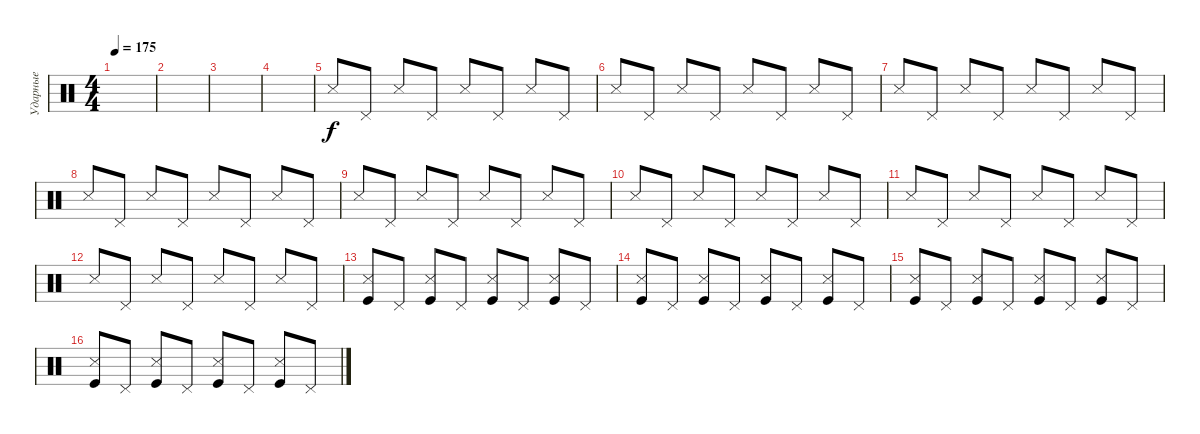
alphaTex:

\track ("Ударные" "Ударные") {instrument percussion}
\staff {score}
\articulation defaults
\ts (4 4)
\tempo 175
\clef neutral
\ks c
|
|
|
|
"Snare (side stick) 3".8 "Pedal Hi-Hat (hit)".8 "Snare (side stick) 3".8 "Pedal Hi-Hat (hit)".8 "Snare (side stick) 3".8 "Pedal Hi-Hat (hit)".8 "Snare (side stick) 3".8 "Pedal Hi-Hat (hit)".8 |
"Snare (side stick) 3".8 "Pedal Hi-Hat (hit)".8 "Snare (side stick) 3".8 "Pedal Hi-Hat (hit)".8 "Snare (side stick) 3".8 "Pedal Hi-Hat (hit)".8 "Snare (side stick) 3".8 "Pedal Hi-Hat (hit)".8 |
"Snare (side stick) 3".8 "Pedal Hi-Hat (hit)".8 "Snare (side stick) 3".8 "Pedal Hi-Hat (hit)".8 "Snare (side stick) 3".8 "Pedal Hi-Hat (hit)".8 "Snare (side stick) 3".8 "Pedal Hi-Hat (hit)".8 |
"Snare (side stick) 3".8 "Pedal Hi-Hat (hit)".8 "Snare (side stick) 3".8 "Pedal Hi-Hat (hit)".8 "Snare (side stick) 3".8 "Pedal Hi-Hat (hit)".8 "Snare (side stick) 3".8 "Pedal Hi-Hat (hit)".8 |
"Snare (side stick) 3".8 "Pedal Hi-Hat (hit)".8 "Snare (side stick) 3".8 "Pedal Hi-Hat (hit)".8 "Snare (side stick) 3".8 "Pedal Hi-Hat (hit)".8 "Snare (side stick) 3".8 "Pedal Hi-Hat (hit)".8 |
"Snare (side stick) 3".8 "Pedal Hi-Hat (hit)".8 "Snare (side stick) 3".8 "Pedal Hi-Hat (hit)".8 "Snare (side stick) 3".8 "Pedal Hi-Hat (hit)".8 "Snare (side stick) 3".8 "Pedal Hi-Hat (hit)".8 |
"Snare (side stick) 3".8 "Pedal Hi-Hat (hit)".8 "Snare (side stick) 3".8 "Pedal Hi-Hat (hit)".8 "Snare (side stick) 3".8 "Pedal Hi-Hat (hit)".8 "Snare (side stick) 3".8 "Pedal Hi-Hat (hit)".8 |
"Snare (side stick) 3".8 "Pedal Hi-Hat (hit)".8 "Snare (side stick) 3".8 "Pedal Hi-Hat (hit)".8 "Snare (side stick) 3".8 "Pedal Hi-Hat (hit)".8 "Snare (side stick) 3".8 "Pedal Hi-Hat (hit)".8 |
("Snare (side stick) 3" "Kick (hit)").8 "Pedal Hi-Hat (hit)".8 ("Snare (side stick) 3" "Kick (hit)").8 "Pedal Hi-Hat (hit)".8 ("Snare (side stick) 3" "Kick (hit)").8 "Pedal Hi-Hat (hit)".8 ("Snare (side stick) 3" "Kick (hit)").8 "Pedal Hi-Hat (hit)".8 |
("Snare (side stick) 3" "Kick (hit)").8 "Pedal Hi-Hat (hit)".8 ("Snare (side stick) 3" "Kick (hit)").8 "Pedal Hi-Hat (hit)".8 ("Snare (side stick) 3" "Kick (hit)").8 "Pedal Hi-Hat (hit)".8 ("Snare (side stick) 3" "Kick (hit)").8 "Pedal Hi-Hat (hit)".8 |
("Snare (side stick) 3" "Kick (hit)").8 "Pedal Hi-Hat (hit)".8 ("Snare (side stick) 3" "Kick (hit)").8 "Pedal Hi-Hat (hit)".8 ("Snare (side stick) 3" "Kick (hit)").8 "Pedal Hi-Hat (hit)".8 ("Snare (side stick) 3" "Kick (hit)").8 "Pedal Hi-Hat (hit)".8 |
("Snare (side stick) 3" "Kick (hit)").8 "Pedal Hi-Hat (hit)".8 ("Snare (side stick) 3" "Kick (hit)").8 "Pedal Hi-Hat (hit)".8 ("Snare (side stick) 3" "Kick (hit)").8 "Pedal Hi-Hat (hit)".8 ("Snare (side stick) 3" "Kick (hit)").8 "Pedal Hi-Hat (hit)".8
